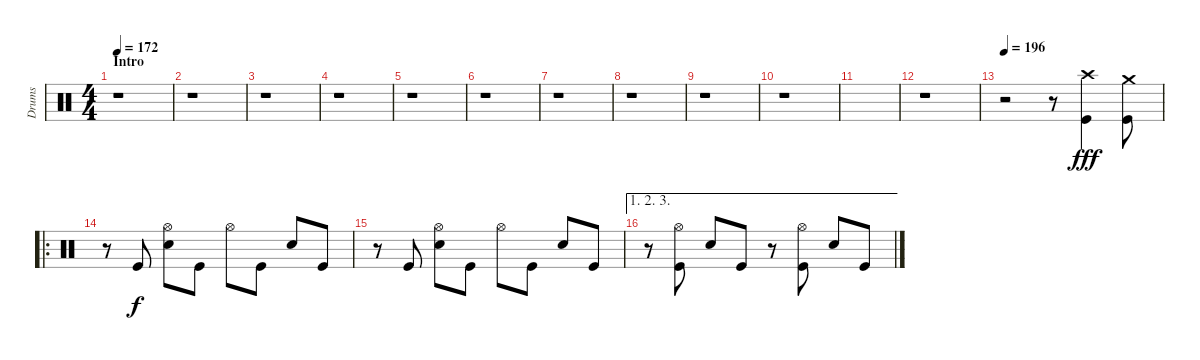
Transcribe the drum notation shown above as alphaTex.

\track ("Drums" "Drums") {instrument percussion}
\staff {score}
\articulation defaults
\ts (4 4)
\section ("" "Intro")
\tempo 172
\clef neutral
\ks c
r.1{dy fff} |
r.1 |
r.1 |
r.1 |
r.1 |
r.1 |
r.1 |
r.1 |
r.1 |
r.1 |
|
r.1 |
\tempo 196
r.2 r.8 ("Crash high (hit)" "Kick (hit)").4 ("Crash medium (hit)" "Kick (hit)").8 |
\ro
r.8 "Kick (hit)".8{dy f} ("Hi-Hat (open)" "Snare (hit) 2").8 "Kick (hit)".8 "Hi-Hat (open)".8 "Kick (hit)".8 "Snare (hit) 2".8 "Kick (hit)".8 |
r.8 "Kick (hit)".8 ("Hi-Hat (open)" "Snare (hit) 2").8 "Kick (hit)".8 "Hi-Hat (open)".8 "Kick (hit)".8 "Snare (hit) 2".8 "Kick (hit)".8 |
\ae (1 2 3)
r.8 ("Hi-Hat (open)" "Kick (hit)").8 "Snare (hit) 2".8 "Kick (hit)".8 r.8 ("Hi-Hat (open)" "Kick (hit)").8 "Snare (hit) 2".8 "Kick (hit)".8
